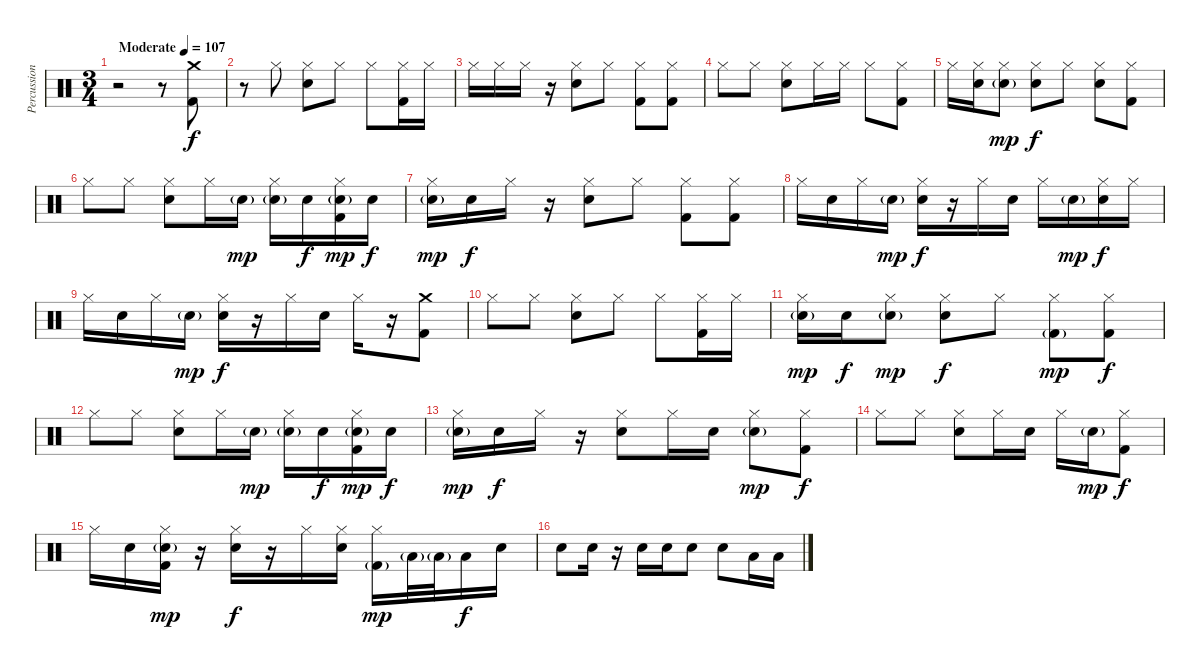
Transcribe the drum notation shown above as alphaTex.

\track ("Percussions" "Percussion") {instrument percussion}
\staff {score}
\articulation defaults
\ts (3 4)
\tempo (107 "Moderate")
\clef neutral
\ks c
r.2{dy f} r.8 ("Crash medium (hit)" "Kick (hit) 2").8 |
r.8 "Hi-Hat (closed)".8 ("Hi-Hat (closed)" "Snare (hit) 2").8 "Hi-Hat (closed)".8 "Hi-Hat (closed)".8 ("Hi-Hat (closed)" "Kick (hit) 2").16 "Hi-Hat (closed)".16 |
"Hi-Hat (closed)".16 "Hi-Hat (closed)".16 "Hi-Hat (closed)".16 r.16 ("Hi-Hat (closed)" "Snare (hit) 2").8 "Hi-Hat (closed)".8 ("Hi-Hat (closed)" "Kick (hit) 2").8 ("Hi-Hat (closed)" "Kick (hit) 2").8 |
"Hi-Hat (closed)".8 "Hi-Hat (closed)".8 ("Hi-Hat (closed)" "Snare (hit) 2").8 "Hi-Hat (closed)".16 "Hi-Hat (closed)".16 "Hi-Hat (closed)".8 ("Hi-Hat (closed)" "Kick (hit) 2").8 |
"Hi-Hat (closed)".16 ("Hi-Hat (closed)" "Snare (hit) 2").16 ("Hi-Hat (closed)" "Snare (hit) 2"{g}).8{dy mp} ("Hi-Hat (closed)" "Snare (hit) 2").8{dy f} "Hi-Hat (closed)".8 ("Hi-Hat (closed)" "Snare (hit) 2").8 ("Hi-Hat (closed)" "Kick (hit) 2").8 |
"Hi-Hat (closed)".8 "Hi-Hat (closed)".8 ("Hi-Hat (closed)" "Snare (hit) 2").8 "Hi-Hat (closed)".16 "Snare (hit) 2"{g}.16{dy mp} ("Hi-Hat (closed)" "Snare (hit) 2"{g}).16 "Snare (hit) 2".16{dy f} ("Hi-Hat (closed)" "Snare (hit) 2"{g} "Kick (hit) 2").16{dy mp} "Snare (hit) 2".16{dy f} |
("Hi-Hat (closed)" "Snare (hit) 2"{g}).16{dy mp} "Snare (hit) 2".16{dy f} "Hi-Hat (closed)".16 r.16 ("Hi-Hat (closed)" "Snare (hit) 2").8 "Hi-Hat (closed)".8 ("Hi-Hat (closed)" "Kick (hit) 2").8 ("Hi-Hat (closed)" "Kick (hit) 2").8 |
"Hi-Hat (closed)".16 "Snare (hit) 2".16 "Hi-Hat (closed)".16 "Snare (hit) 2"{g}.16{dy mp} ("Hi-Hat (closed)" "Snare (hit) 2").16{dy f} r.16 "Hi-Hat (closed)".16 "Snare (hit) 2".16 "Hi-Hat (closed)".16 "Snare (hit) 2"{g}.16{dy mp} ("Hi-Hat (closed)" "Snare (hit) 2").16{dy f} "Hi-Hat (closed)".16 |
"Hi-Hat (closed)".16 "Snare (hit) 2".16 "Hi-Hat (closed)".16 "Snare (hit) 2"{g}.16{dy mp} ("Hi-Hat (closed)" "Snare (hit) 2").16{dy f} r.16 "Hi-Hat (closed)".16 "Snare (hit) 2".16 "Hi-Hat (closed)".16 r.16 ("Crash medium (hit)" "Kick (hit) 2").8 |
"Hi-Hat (closed)".8 "Hi-Hat (closed)".8 ("Hi-Hat (closed)" "Snare (hit) 2").8 "Hi-Hat (closed)".8 "Hi-Hat (closed)".8 ("Hi-Hat (closed)" "Kick (hit) 2").16 "Hi-Hat (closed)".16 |
("Hi-Hat (closed)" "Snare (hit) 2"{g}).16{dy mp} "Snare (hit) 2".16{dy f} ("Hi-Hat (closed)" "Snare (hit) 2"{g}).8{dy mp} ("Hi-Hat (closed)" "Snare (hit) 2").8{dy f} "Hi-Hat (closed)".8 ("Hi-Hat (closed)" "Kick (hit) 2"{g}).8{dy mp} ("Hi-Hat (closed)" "Kick (hit) 2").8{dy f} |
"Hi-Hat (closed)".8 "Hi-Hat (closed)".8 ("Hi-Hat (closed)" "Snare (hit) 2").8 "Hi-Hat (closed)".16 "Snare (hit) 2"{g}.16{dy mp} ("Hi-Hat (closed)" "Snare (hit) 2"{g}).16 "Snare (hit) 2".16{dy f} ("Hi-Hat (closed)" "Snare (hit) 2"{g} "Kick (hit) 2").16{dy mp} "Snare (hit) 2".16{dy f} |
("Hi-Hat (closed)" "Snare (hit) 2"{g}).16{dy mp} "Snare (hit) 2".16{dy f} "Hi-Hat (closed)".16 r.16 ("Hi-Hat (closed)" "Snare (hit) 2").8 "Hi-Hat (closed)".16 "Snare (hit) 2".16 ("Hi-Hat (closed)" "Snare (hit) 2"{g}).8{dy mp} ("Hi-Hat (closed)" "Kick (hit) 2").8{dy f} |
"Hi-Hat (closed)".8 "Hi-Hat (closed)".8 ("Hi-Hat (closed)" "Snare (hit) 2").8 "Hi-Hat (closed)".16 "Snare (hit) 2".16 "Hi-Hat (closed)".16 "Snare (hit) 2"{g}.16{dy mp} ("Hi-Hat (closed)" "Kick (hit) 2").8{dy f} |
"Hi-Hat (closed)".16 "Snare (hit) 2".16 ("Hi-Hat (closed)" "Snare (hit) 2"{g} "Kick (hit) 2").16{dy mp} r.16 ("Hi-Hat (closed)" "Snare (hit) 2").16{dy f} r.16 "Hi-Hat (closed)".16 ("Hi-Hat (closed)" "Snare (hit) 2").16 ("Hi-Hat (closed)" "Kick (hit) 2"{g}).16{dy mp} "Low Tom (hit)"{g}.32 "Low Tom (hit)"{g}.32 "Low Tom (hit)".16{dy f} "Snare (hit) 2".16 |
"Snare (hit) 2".8 "Snare (hit) 2".16 r.16 "Snare (hit) 2".16 "Snare (hit) 2".16 "Snare (hit) 2".8 "Snare (hit) 2".8 "Low Tom (hit)".16 "Low Tom (hit)".16
